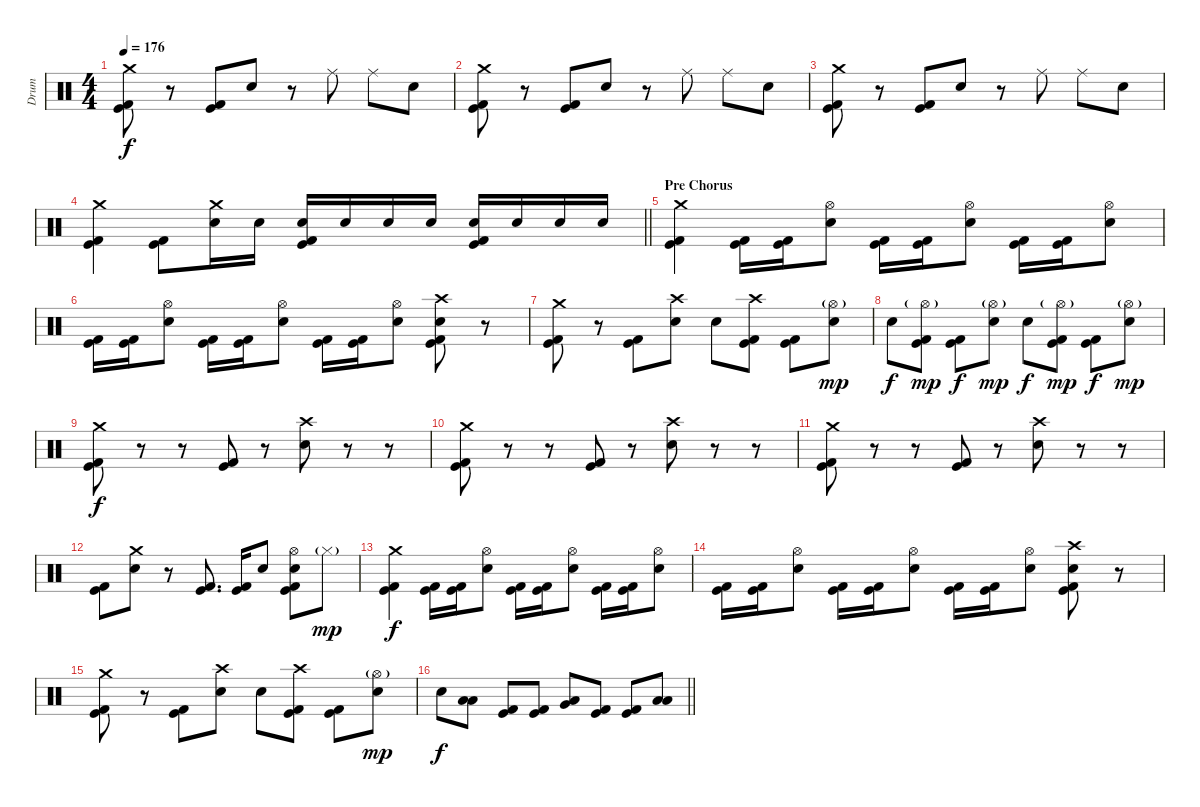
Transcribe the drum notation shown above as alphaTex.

\track ("Drum" "Drum") {instrument percussion}
\staff {score}
\articulation defaults
\ts (4 4)
\tempo 176
\clef neutral
\ks c
("Crash medium (hit)" "Kick (hit)" "Kick (hit) 2").8{dy f} r.8 ("Kick (hit)" "Kick (hit) 2").8 "Electric Snare (hit)".8 r.8 "Ride (middle)".8 "Ride (middle)".8 "Electric Snare (hit)".8 |
("Crash medium (hit)" "Kick (hit)" "Kick (hit) 2").8 r.8 ("Kick (hit)" "Kick (hit) 2").8 "Electric Snare (hit)".8 r.8 "Ride (middle)".8 "Ride (middle)".8 "Electric Snare (hit)".8 |
("Crash medium (hit)" "Kick (hit)" "Kick (hit) 2").8 r.8 ("Kick (hit)" "Kick (hit) 2").8 "Electric Snare (hit)".8 r.8 "Ride (middle)".8 "Ride (middle)".8 "Electric Snare (hit)".8 |
\barLineRight lightlight
("Crash medium (hit)" "Kick (hit)" "Kick (hit) 2").4 ("Kick (hit)" "Kick (hit) 2").8 ("Crash medium (hit)" "Electric Snare (hit)").16 "Electric Snare (hit)".16 ("Electric Snare (hit)" "Kick (hit)" "Kick (hit) 2").16 "Electric Snare (hit)".16 "Electric Snare (hit)".16 "Electric Snare (hit)".16 ("Electric Snare (hit)" "Kick (hit)" "Kick (hit) 2").16 "Electric Snare (hit)".16 "Electric Snare (hit)".16 "Electric Snare (hit)".16 |
\section ("" "Pre Chorus")
("Crash medium (hit)" "Kick (hit)" "Kick (hit) 2").4 ("Kick (hit)" "Kick (hit) 2").16 ("Kick (hit)" "Kick (hit) 2").16 ("Hi-Hat (open)" "Electric Snare (hit)").8 ("Kick (hit)" "Kick (hit) 2").16 ("Kick (hit)" "Kick (hit) 2").16 ("Hi-Hat (open)" "Electric Snare (hit)").8 ("Kick (hit)" "Kick (hit) 2").16 ("Kick (hit)" "Kick (hit) 2").16 ("Hi-Hat (open)" "Electric Snare (hit)").8 |
("Kick (hit)" "Kick (hit) 2").16 ("Kick (hit)" "Kick (hit) 2").16 ("Hi-Hat (open)" "Electric Snare (hit)").8 ("Kick (hit)" "Kick (hit) 2").16 ("Kick (hit)" "Kick (hit) 2").16 ("Hi-Hat (open)" "Electric Snare (hit)").8 ("Kick (hit)" "Kick (hit) 2").16 ("Kick (hit)" "Kick (hit) 2").16 ("Hi-Hat (open)" "Electric Snare (hit)").8 ("Crash high (hit)" "Electric Snare (hit)" "Kick (hit)" "Kick (hit) 2").8 r.8 |
("Crash medium (hit)" "Kick (hit)" "Kick (hit) 2").8 r.8 ("Kick (hit)" "Kick (hit) 2").8 ("Crash high (hit)" "Electric Snare (hit)").8 "Electric Snare (hit)".8 ("Crash high (hit)" "Kick (hit)" "Kick (hit) 2").8 ("Kick (hit)" "Kick (hit) 2").8 ("Hi-Hat (open)"{g} "Electric Snare (hit)").8{dy mp} |
"Electric Snare (hit)".8{dy f} ("Hi-Hat (open)"{g} "Kick (hit)" "Kick (hit) 2").8{dy mp} ("Kick (hit)" "Kick (hit) 2").8{dy f} ("Hi-Hat (open)"{g} "Electric Snare (hit)").8{dy mp} "Electric Snare (hit)".8{dy f} ("Hi-Hat (open)"{g} "Kick (hit)" "Kick (hit) 2").8{dy mp} ("Kick (hit)" "Kick (hit) 2").8{dy f} ("Hi-Hat (open)"{g} "Electric Snare (hit)").8{dy mp} |
("Crash medium (hit)" "Kick (hit)" "Kick (hit) 2").8{dy f} r.8 r.8 ("Kick (hit)" "Kick (hit) 2").8 r.8 ("Crash high (hit)" "Electric Snare (hit)").8 r.8 r.8 |
("Crash medium (hit)" "Kick (hit)" "Kick (hit) 2").8 r.8 r.8 ("Kick (hit)" "Kick (hit) 2").8 r.8 ("Crash high (hit)" "Electric Snare (hit)").8 r.8 r.8 |
("Crash medium (hit)" "Kick (hit)" "Kick (hit) 2").8 r.8 r.8 ("Kick (hit)" "Kick (hit) 2").8 r.8 ("Crash high (hit)" "Electric Snare (hit)").8 r.8 r.8 |
("Kick (hit)" "Kick (hit) 2").8 ("Crash medium (hit)" "Electric Snare (hit)").8 r.8 ("Kick (hit)" "Kick (hit) 2").8{d} ("Kick (hit)" "Kick (hit) 2").16 "Electric Snare (hit)".8 ("Hi-Hat (open)" "Electric Snare (hit)" "Kick (hit)" "Kick (hit) 2").8 "Hi-Hat (closed)"{g}.8{dy mp} |
("Crash medium (hit)" "Kick (hit)" "Kick (hit) 2").4{dy f} ("Kick (hit)" "Kick (hit) 2").16 ("Kick (hit)" "Kick (hit) 2").16 ("Hi-Hat (open)" "Electric Snare (hit)").8 ("Kick (hit)" "Kick (hit) 2").16 ("Kick (hit)" "Kick (hit) 2").16 ("Hi-Hat (open)" "Electric Snare (hit)").8 ("Kick (hit)" "Kick (hit) 2").16 ("Kick (hit)" "Kick (hit) 2").16 ("Hi-Hat (open)" "Electric Snare (hit)").8 |
("Kick (hit)" "Kick (hit) 2").16 ("Kick (hit)" "Kick (hit) 2").16 ("Hi-Hat (open)" "Electric Snare (hit)").8 ("Kick (hit)" "Kick (hit) 2").16 ("Kick (hit)" "Kick (hit) 2").16 ("Hi-Hat (open)" "Electric Snare (hit)").8 ("Kick (hit)" "Kick (hit) 2").16 ("Kick (hit)" "Kick (hit) 2").16 ("Hi-Hat (open)" "Electric Snare (hit)").8 ("Crash high (hit)" "Electric Snare (hit)" "Kick (hit)" "Kick (hit) 2").8 r.8 |
("Crash medium (hit)" "Kick (hit)" "Kick (hit) 2").8 r.8 ("Kick (hit)" "Kick (hit) 2").8 ("Crash high (hit)" "Electric Snare (hit)").8 "Electric Snare (hit)".8 ("Crash high (hit)" "Kick (hit)" "Kick (hit) 2").8 ("Kick (hit)" "Kick (hit) 2").8 ("Hi-Hat (open)"{g} "Electric Snare (hit)").8{dy mp} |
\barLineRight lightlight "Electric Snare (hit)".8{dy f}
("Low Floor Tom (hit)" "Low Tom (hit)").8 ("Kick (hit)" "Kick (hit) 2").8 ("Kick (hit)" "Kick (hit) 2").8 ("Low Floor Tom (hit)" "Very Low Tom (hit)").8 ("Kick (hit)" "Kick (hit) 2").8 ("Kick (hit)" "Kick (hit) 2").8 ("Low Floor Tom (hit)" "Low Floor Tom (hit)").8
